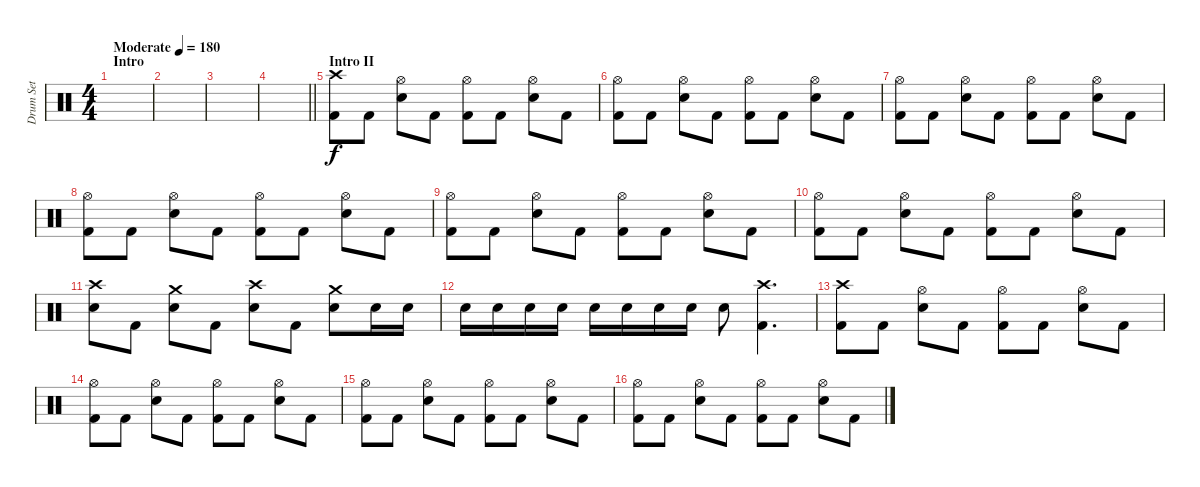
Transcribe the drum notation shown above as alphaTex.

\track ("Drum Set" "Drum Set") {instrument percussion}
\staff {score}
\articulation defaults
\ts (4 4)
\section ("" "Intro")
\tempo (180 "Moderate")
\clef neutral
\ks c
|
|
|
\barLineRight lightlight
|
\section ("" "Intro II")
("Crash high (hit)" "Kick (hit) 2").8 "Kick (hit) 2".8 ("Hi-Hat (open)" "Snare (hit) 2").8 "Kick (hit) 2".8 ("Hi-Hat (open)" "Kick (hit) 2").8 "Kick (hit) 2".8 ("Hi-Hat (open)" "Snare (hit) 2").8 "Kick (hit) 2".8 |
("Hi-Hat (open)" "Kick (hit) 2").8 "Kick (hit) 2".8 ("Hi-Hat (open)" "Snare (hit) 2").8 "Kick (hit) 2".8 ("Hi-Hat (open)" "Kick (hit) 2").8 "Kick (hit) 2".8 ("Hi-Hat (open)" "Snare (hit) 2").8 "Kick (hit) 2".8 |
("Hi-Hat (open)" "Kick (hit) 2").8 "Kick (hit) 2".8 ("Hi-Hat (open)" "Snare (hit) 2").8 "Kick (hit) 2".8 ("Hi-Hat (open)" "Kick (hit) 2").8 "Kick (hit) 2".8 ("Hi-Hat (open)" "Snare (hit) 2").8 "Kick (hit) 2".8 |
("Hi-Hat (open)" "Kick (hit) 2").8 "Kick (hit) 2".8 ("Hi-Hat (open)" "Snare (hit) 2").8 "Kick (hit) 2".8 ("Hi-Hat (open)" "Kick (hit) 2").8 "Kick (hit) 2".8 ("Hi-Hat (open)" "Snare (hit) 2").8 "Kick (hit) 2".8 |
("Hi-Hat (open)" "Kick (hit) 2").8 "Kick (hit) 2".8 ("Hi-Hat (open)" "Snare (hit) 2").8 "Kick (hit) 2".8 ("Hi-Hat (open)" "Kick (hit) 2").8 "Kick (hit) 2".8 ("Hi-Hat (open)" "Snare (hit) 2").8 "Kick (hit) 2".8 |
("Hi-Hat (open)" "Kick (hit) 2").8 "Kick (hit) 2".8 ("Hi-Hat (open)" "Snare (hit) 2").8 "Kick (hit) 2".8 ("Hi-Hat (open)" "Kick (hit) 2").8 "Kick (hit) 2".8 ("Hi-Hat (open)" "Snare (hit) 2").8 "Kick (hit) 2".8 |
("Crash high (hit)" "Snare (hit) 2").8 "Kick (hit) 2".8 ("Crash medium (hit)" "Snare (hit) 2").8 "Kick (hit) 2".8 ("Crash high (hit)" "Snare (hit) 2").8 "Kick (hit) 2".8 ("Crash medium (hit)" "Snare (hit) 2").8 "Snare (hit) 2".16 "Snare (hit) 2".16 |
"Snare (hit) 2".16 "Snare (hit) 2".16 "Snare (hit) 2".16 "Snare (hit) 2".16 "Snare (hit) 2".16 "Snare (hit) 2".16 "Snare (hit) 2".16 "Snare (hit) 2".16 "Snare (hit) 2".8 ("Crash high (hit)" "Kick (hit) 2").4{d} |
("Crash high (hit)" "Kick (hit) 2").8 "Kick (hit) 2".8 ("Hi-Hat (open)" "Snare (hit) 2").8 "Kick (hit) 2".8 ("Hi-Hat (open)" "Kick (hit) 2").8 "Kick (hit) 2".8 ("Hi-Hat (open)" "Snare (hit) 2").8 "Kick (hit) 2".8 |
("Hi-Hat (open)" "Kick (hit) 2").8 "Kick (hit) 2".8 ("Hi-Hat (open)" "Snare (hit) 2").8 "Kick (hit) 2".8 ("Hi-Hat (open)" "Kick (hit) 2").8 "Kick (hit) 2".8 ("Hi-Hat (open)" "Snare (hit) 2").8 "Kick (hit) 2".8 |
("Hi-Hat (open)" "Kick (hit) 2").8 "Kick (hit) 2".8 ("Hi-Hat (open)" "Snare (hit) 2").8 "Kick (hit) 2".8 ("Hi-Hat (open)" "Kick (hit) 2").8 "Kick (hit) 2".8 ("Hi-Hat (open)" "Snare (hit) 2").8 "Kick (hit) 2".8 |
("Hi-Hat (open)" "Kick (hit) 2").8 "Kick (hit) 2".8 ("Hi-Hat (open)" "Snare (hit) 2").8 "Kick (hit) 2".8 ("Hi-Hat (open)" "Kick (hit) 2").8 "Kick (hit) 2".8 ("Hi-Hat (open)" "Snare (hit) 2").8 "Kick (hit) 2".8
